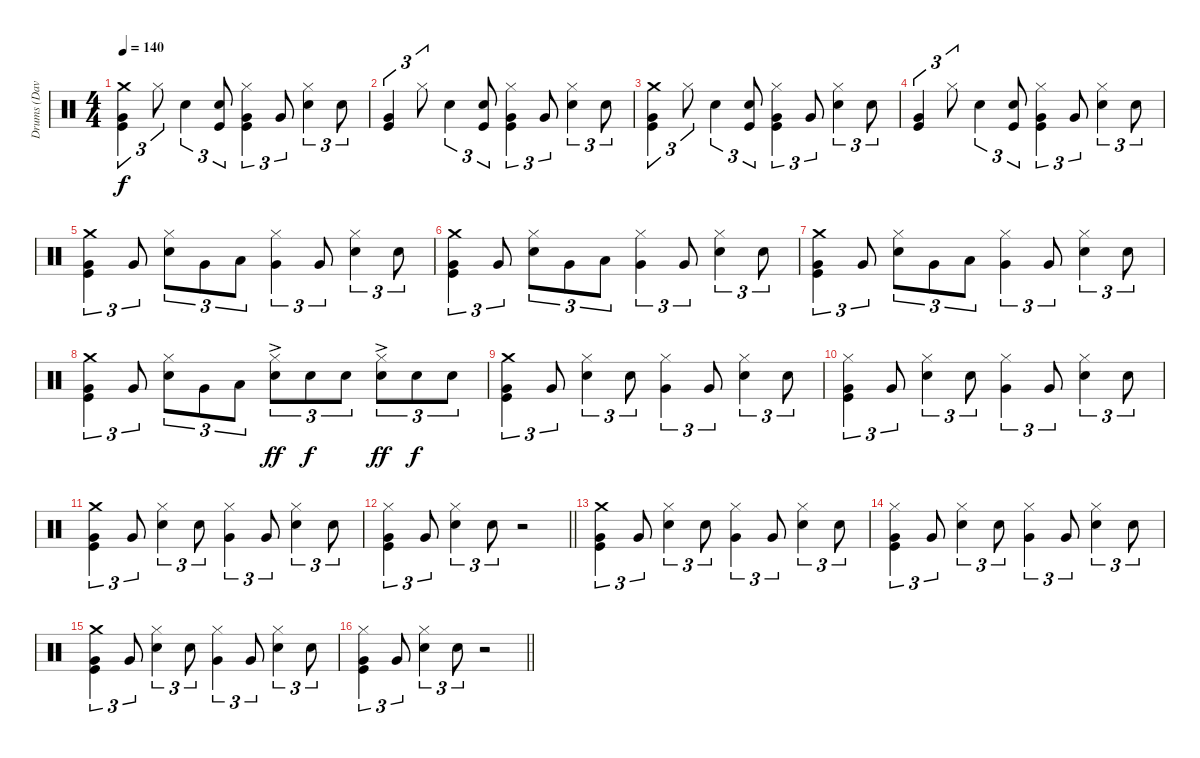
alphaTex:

\track ("Drums (Dave Atkins)" "Drums (Dav") {instrument percussion}
\staff {score}
\articulation defaults
\ts (4 4)
\tempo 140
\clef neutral
\ks c
("Crash medium (hit)" "Very Low Tom (hit)" "Kick (hit)").4{tu (3 2) dy f} "Hi-Hat (closed)".8{tu (3 2)} "Snare (hit) 2".4{tu (3 2)} ("Snare (hit) 2" "Kick (hit)").8{tu (3 2)} ("Hi-Hat (closed)" "Very Low Tom (hit)" "Kick (hit)").4{tu (3 2)} "Very Low Tom (hit)".8{tu (3 2)} ("Hi-Hat (closed)" "Snare (hit) 2").4{tu (3 2)} "Snare (hit) 2".8{tu (3 2)} |
("Very Low Tom (hit)" "Kick (hit)").4{tu (3 2)} "Hi-Hat (closed)".8{tu (3 2)} "Snare (hit) 2".4{tu (3 2)} ("Snare (hit) 2" "Kick (hit)").8{tu (3 2)} ("Hi-Hat (closed)" "Very Low Tom (hit)" "Kick (hit)").4{tu (3 2)} "Very Low Tom (hit)".8{tu (3 2)} ("Hi-Hat (closed)" "Snare (hit) 2").4{tu (3 2)} "Snare (hit) 2".8{tu (3 2)} |
("Crash medium (hit)" "Very Low Tom (hit)" "Kick (hit)").4{tu (3 2)} "Hi-Hat (closed)".8{tu (3 2)} "Snare (hit) 2".4{tu (3 2)} ("Snare (hit) 2" "Kick (hit)").8{tu (3 2)} ("Hi-Hat (closed)" "Very Low Tom (hit)" "Kick (hit)").4{tu (3 2)} "Very Low Tom (hit)".8{tu (3 2)} ("Hi-Hat (closed)" "Snare (hit) 2").4{tu (3 2)} "Snare (hit) 2".8{tu (3 2)} |
("Very Low Tom (hit)" "Kick (hit)").4{tu (3 2)} "Hi-Hat (closed)".8{tu (3 2)} "Snare (hit) 2".4{tu (3 2)} ("Snare (hit) 2" "Kick (hit)").8{tu (3 2)} ("Hi-Hat (closed)" "Very Low Tom (hit)" "Kick (hit)").4{tu (3 2)} "Very Low Tom (hit)".8{tu (3 2)} ("Hi-Hat (closed)" "Snare (hit) 2").4{tu (3 2)} "Snare (hit) 2".8{tu (3 2)} |
("Crash medium (hit)" "Very Low Tom (hit)" "Kick (hit)").4{tu (3 2)} "Very Low Tom (hit)".8{tu (3 2)} ("Hi-Hat (closed)" "Snare (hit) 2").8{tu (3 2)} "Very Low Tom (hit)".8{tu (3 2)} "Low Floor Tom (hit)".8{tu (3 2)} ("Hi-Hat (closed)" "Very Low Tom (hit)").4{tu (3 2)} "Very Low Tom (hit)".8{tu (3 2)} ("Hi-Hat (closed)" "Snare (hit) 2").4{tu (3 2)} "Snare (hit) 2".8{tu (3 2)} |
("Crash medium (hit)" "Very Low Tom (hit)" "Kick (hit)").4{tu (3 2)} "Very Low Tom (hit)".8{tu (3 2)} ("Hi-Hat (closed)" "Snare (hit) 2").8{tu (3 2)} "Very Low Tom (hit)".8{tu (3 2)} "Low Floor Tom (hit)".8{tu (3 2)} ("Hi-Hat (closed)" "Very Low Tom (hit)").4{tu (3 2)} "Very Low Tom (hit)".8{tu (3 2)} ("Hi-Hat (closed)" "Snare (hit) 2").4{tu (3 2)} "Snare (hit) 2".8{tu (3 2)} |
("Crash medium (hit)" "Very Low Tom (hit)" "Kick (hit)").4{tu (3 2)} "Very Low Tom (hit)".8{tu (3 2)} ("Hi-Hat (closed)" "Snare (hit) 2").8{tu (3 2)} "Very Low Tom (hit)".8{tu (3 2)} "Low Floor Tom (hit)".8{tu (3 2)} ("Hi-Hat (closed)" "Very Low Tom (hit)").4{tu (3 2)} "Very Low Tom (hit)".8{tu (3 2)} ("Hi-Hat (closed)" "Snare (hit) 2").4{tu (3 2)} "Snare (hit) 2".8{tu (3 2)} |
("Crash medium (hit)" "Very Low Tom (hit)" "Kick (hit)").4{tu (3 2)} "Very Low Tom (hit)".8{tu (3 2)} ("Hi-Hat (closed)" "Snare (hit) 2").8{tu (3 2)} "Very Low Tom (hit)".8{tu (3 2)} "Low Floor Tom (hit)".8{tu (3 2)} ("Hi-Hat (closed)" "Snare (hit) 2"{ac}).8{tu (3 2) dy ff} "Snare (hit) 2".8{tu (3 2) dy f} "Snare (hit) 2".8{tu (3 2)} ("Hi-Hat (closed)" "Snare (hit) 2"{ac}).8{tu (3 2) dy ff} "Snare (hit) 2".8{tu (3 2) dy f} "Snare (hit) 2".8{tu (3 2)} |
("Crash medium (hit)" "Very Low Tom (hit)" "Kick (hit)").4{tu (3 2)} "Very Low Tom (hit)".8{tu (3 2)} ("Hi-Hat (closed)" "Snare (hit) 2").4{tu (3 2)} "Snare (hit) 2".8{tu (3 2)} ("Hi-Hat (closed)" "Very Low Tom (hit)").4{tu (3 2)} "Very Low Tom (hit)".8{tu (3 2)} ("Hi-Hat (closed)" "Snare (hit) 2").4{tu (3 2)} "Snare (hit) 2".8{tu (3 2)} |
("Hi-Hat (closed)" "Very Low Tom (hit)" "Kick (hit)").4{tu (3 2)} "Very Low Tom (hit)".8{tu (3 2)} ("Hi-Hat (closed)" "Snare (hit) 2").4{tu (3 2)} "Snare (hit) 2".8{tu (3 2)} ("Hi-Hat (closed)" "Very Low Tom (hit)").4{tu (3 2)} "Very Low Tom (hit)".8{tu (3 2)} ("Hi-Hat (closed)" "Snare (hit) 2").4{tu (3 2)} "Snare (hit) 2".8{tu (3 2)} |
("Crash medium (hit)" "Very Low Tom (hit)" "Kick (hit)").4{tu (3 2)} "Very Low Tom (hit)".8{tu (3 2)} ("Hi-Hat (closed)" "Snare (hit) 2").4{tu (3 2)} "Snare (hit) 2".8{tu (3 2)} ("Hi-Hat (closed)" "Very Low Tom (hit)").4{tu (3 2)} "Very Low Tom (hit)".8{tu (3 2)} ("Hi-Hat (closed)" "Snare (hit) 2").4{tu (3 2)} "Snare (hit) 2".8{tu (3 2)} |
\barLineRight lightlight
("Hi-Hat (closed)" "Very Low Tom (hit)" "Kick (hit)").4{tu (3 2)} "Very Low Tom (hit)".8{tu (3 2)} ("Hi-Hat (closed)" "Snare (hit) 2").4{tu (3 2)} "Snare (hit) 2".8{tu (3 2)} r.2 |
\section ("" "")
("Crash medium (hit)" "Very Low Tom (hit)" "Kick (hit)").4{tu (3 2)} "Very Low Tom (hit)".8{tu (3 2)} ("Hi-Hat (closed)" "Snare (hit) 2").4{tu (3 2)} "Snare (hit) 2".8{tu (3 2)} ("Hi-Hat (closed)" "Very Low Tom (hit)").4{tu (3 2)} "Very Low Tom (hit)".8{tu (3 2)} ("Hi-Hat (closed)" "Snare (hit) 2").4{tu (3 2)} "Snare (hit) 2".8{tu (3 2)} |
("Hi-Hat (closed)" "Very Low Tom (hit)" "Kick (hit)").4{tu (3 2)} "Very Low Tom (hit)".8{tu (3 2)} ("Hi-Hat (closed)" "Snare (hit) 2").4{tu (3 2)} "Snare (hit) 2".8{tu (3 2)} ("Hi-Hat (closed)" "Very Low Tom (hit)").4{tu (3 2)} "Very Low Tom (hit)".8{tu (3 2)} ("Hi-Hat (closed)" "Snare (hit) 2").4{tu (3 2)} "Snare (hit) 2".8{tu (3 2)} |
("Crash medium (hit)" "Very Low Tom (hit)" "Kick (hit)").4{tu (3 2)} "Very Low Tom (hit)".8{tu (3 2)} ("Hi-Hat (closed)" "Snare (hit) 2").4{tu (3 2)} "Snare (hit) 2".8{tu (3 2)} ("Hi-Hat (closed)" "Very Low Tom (hit)").4{tu (3 2)} "Very Low Tom (hit)".8{tu (3 2)} ("Hi-Hat (closed)" "Snare (hit) 2").4{tu (3 2)} "Snare (hit) 2".8{tu (3 2)} |
\barLineRight lightlight
("Hi-Hat (closed)" "Very Low Tom (hit)" "Kick (hit)").4{tu (3 2)} "Very Low Tom (hit)".8{tu (3 2)} ("Hi-Hat (closed)" "Snare (hit) 2").4{tu (3 2)} "Snare (hit) 2".8{tu (3 2)} r.2
